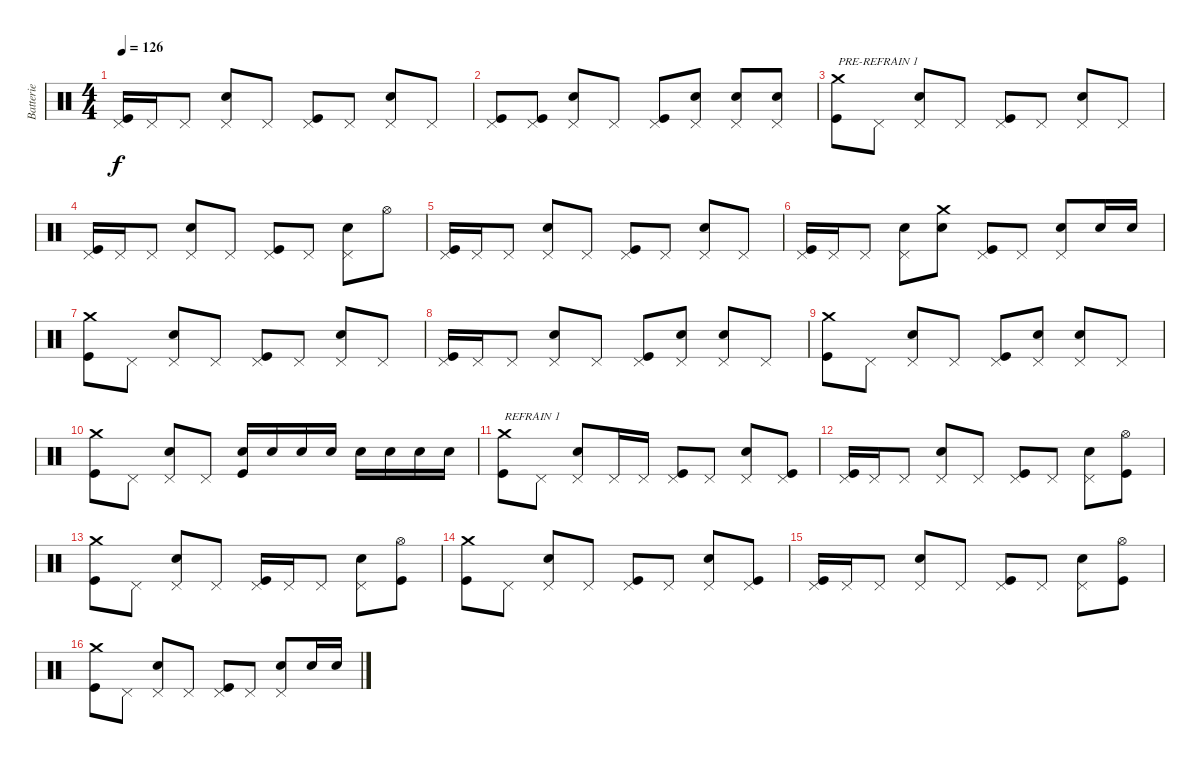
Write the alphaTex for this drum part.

\track ("Batterie" "Batterie") {instrument percussion}
\staff {score}
\articulation defaults
\ts (4 4)
\tempo 126
\clef neutral
\ks c
("Pedal Hi-Hat (hit)" "Kick (hit)").16{dy f} "Pedal Hi-Hat (hit)".16 "Pedal Hi-Hat (hit)".8 ("Pedal Hi-Hat (hit)" "Snare (hit) 2").8 "Pedal Hi-Hat (hit)".8 ("Pedal Hi-Hat (hit)" "Kick (hit)").8 "Pedal Hi-Hat (hit)".8 ("Pedal Hi-Hat (hit)" "Snare (hit) 2").8 "Pedal Hi-Hat (hit)".8 |
("Pedal Hi-Hat (hit)" "Kick (hit)").8 ("Pedal Hi-Hat (hit)" "Kick (hit)").8 ("Pedal Hi-Hat (hit)" "Snare (hit) 2").8 "Pedal Hi-Hat (hit)".8 ("Pedal Hi-Hat (hit)" "Kick (hit)").8 ("Pedal Hi-Hat (hit)" "Snare (hit) 2").8 ("Pedal Hi-Hat (hit)" "Snare (hit) 2").8 ("Pedal Hi-Hat (hit)" "Snare (hit) 2").8 |
("Crash medium (hit)" "Kick (hit)").8{txt "PRE-REFRAIN 1"} "Pedal Hi-Hat (hit)".8 ("Pedal Hi-Hat (hit)" "Snare (hit) 2").8 "Pedal Hi-Hat (hit)".8 ("Pedal Hi-Hat (hit)" "Kick (hit)").8 "Pedal Hi-Hat (hit)".8 ("Pedal Hi-Hat (hit)" "Snare (hit) 2").8 "Pedal Hi-Hat (hit)".8 |
("Pedal Hi-Hat (hit)" "Kick (hit)").16 "Pedal Hi-Hat (hit)".16 "Pedal Hi-Hat (hit)".8 ("Pedal Hi-Hat (hit)" "Snare (hit) 2").8 "Pedal Hi-Hat (hit)".8 ("Pedal Hi-Hat (hit)" "Kick (hit)").8 "Pedal Hi-Hat (hit)".8 ("Pedal Hi-Hat (hit)" "Snare (hit) 2").8 "Hi-Hat (open)".8 |
("Pedal Hi-Hat (hit)" "Kick (hit)").16 "Pedal Hi-Hat (hit)".16 "Pedal Hi-Hat (hit)".8 ("Pedal Hi-Hat (hit)" "Snare (hit) 2").8 "Pedal Hi-Hat (hit)".8 ("Pedal Hi-Hat (hit)" "Kick (hit)").8 "Pedal Hi-Hat (hit)".8 ("Pedal Hi-Hat (hit)" "Snare (hit) 2").8 "Pedal Hi-Hat (hit)".8 |
("Pedal Hi-Hat (hit)" "Kick (hit)").16 "Pedal Hi-Hat (hit)".16 "Pedal Hi-Hat (hit)".8 ("Pedal Hi-Hat (hit)" "Snare (hit) 2").8 ("Crash medium (hit)" "Snare (hit) 2").8 ("Pedal Hi-Hat (hit)" "Kick (hit)").8 "Pedal Hi-Hat (hit)".8 ("Pedal Hi-Hat (hit)" "Snare (hit) 2").8 "Snare (hit) 2".16 "Snare (hit) 2".16 |
("Crash medium (hit)" "Kick (hit)").8 "Pedal Hi-Hat (hit)".8 ("Pedal Hi-Hat (hit)" "Snare (hit) 2").8 "Pedal Hi-Hat (hit)".8 ("Pedal Hi-Hat (hit)" "Kick (hit)").8 "Pedal Hi-Hat (hit)".8 ("Pedal Hi-Hat (hit)" "Snare (hit) 2").8 "Pedal Hi-Hat (hit)".8 |
("Pedal Hi-Hat (hit)" "Kick (hit)").16 "Pedal Hi-Hat (hit)".16 "Pedal Hi-Hat (hit)".8 ("Pedal Hi-Hat (hit)" "Snare (hit) 2").8 "Pedal Hi-Hat (hit)".8 ("Pedal Hi-Hat (hit)" "Kick (hit)").8 ("Pedal Hi-Hat (hit)" "Snare (hit) 2").8 ("Pedal Hi-Hat (hit)" "Snare (hit) 2").8 "Pedal Hi-Hat (hit)".8 |
("Crash medium (hit)" "Kick (hit)").8 "Pedal Hi-Hat (hit)".8 ("Pedal Hi-Hat (hit)" "Snare (hit) 2").8 "Pedal Hi-Hat (hit)".8 ("Pedal Hi-Hat (hit)" "Kick (hit)").8 ("Pedal Hi-Hat (hit)" "Snare (hit) 2").8 ("Pedal Hi-Hat (hit)" "Snare (hit) 2").8 "Pedal Hi-Hat (hit)".8 |
("Crash medium (hit)" "Kick (hit)").8 "Pedal Hi-Hat (hit)".8 ("Pedal Hi-Hat (hit)" "Snare (hit) 2").8 "Pedal Hi-Hat (hit)".8 ("Snare (hit) 2" "Kick (hit)").16 "Snare (hit) 2".16 "Snare (hit) 2".16 "Snare (hit) 2".16 "Snare (hit) 2".16 "Snare (hit) 2".16 "Snare (hit) 2".16 "Snare (hit) 2".16 |
("Crash medium (hit)" "Kick (hit)").8{txt "REFRAIN 1"} "Pedal Hi-Hat (hit)".8 ("Pedal Hi-Hat (hit)" "Snare (hit) 2").8 "Pedal Hi-Hat (hit)".16 "Pedal Hi-Hat (hit)".16 ("Pedal Hi-Hat (hit)" "Kick (hit)").8 "Pedal Hi-Hat (hit)".8 ("Pedal Hi-Hat (hit)" "Snare (hit) 2").8 ("Pedal Hi-Hat (hit)" "Kick (hit)").8 |
("Pedal Hi-Hat (hit)" "Kick (hit)").16 "Pedal Hi-Hat (hit)".16 "Pedal Hi-Hat (hit)".8 ("Pedal Hi-Hat (hit)" "Snare (hit) 2").8 "Pedal Hi-Hat (hit)".8 ("Pedal Hi-Hat (hit)" "Kick (hit)").8 "Pedal Hi-Hat (hit)".8 ("Pedal Hi-Hat (hit)" "Snare (hit) 2").8 ("Hi-Hat (open)" "Kick (hit)").8 |
("Crash medium (hit)" "Kick (hit)").8 "Pedal Hi-Hat (hit)".8 ("Pedal Hi-Hat (hit)" "Snare (hit) 2").8 "Pedal Hi-Hat (hit)".8 ("Pedal Hi-Hat (hit)" "Kick (hit)").16 "Pedal Hi-Hat (hit)".16 "Pedal Hi-Hat (hit)".8 ("Pedal Hi-Hat (hit)" "Snare (hit) 2").8 ("Hi-Hat (open)" "Kick (hit)").8 |
("Crash medium (hit)" "Kick (hit)").8 "Pedal Hi-Hat (hit)".8 ("Pedal Hi-Hat (hit)" "Snare (hit) 2").8 "Pedal Hi-Hat (hit)".8 ("Pedal Hi-Hat (hit)" "Kick (hit)").8 "Pedal Hi-Hat (hit)".8 ("Pedal Hi-Hat (hit)" "Snare (hit) 2").8 ("Pedal Hi-Hat (hit)" "Kick (hit)").8 |
("Pedal Hi-Hat (hit)" "Kick (hit)").16 "Pedal Hi-Hat (hit)".16 "Pedal Hi-Hat (hit)".8 ("Pedal Hi-Hat (hit)" "Snare (hit) 2").8 "Pedal Hi-Hat (hit)".8 ("Pedal Hi-Hat (hit)" "Kick (hit)").8 "Pedal Hi-Hat (hit)".8 ("Pedal Hi-Hat (hit)" "Snare (hit) 2").8 ("Hi-Hat (open)" "Kick (hit)").8 |
("Crash medium (hit)" "Kick (hit)").8 "Pedal Hi-Hat (hit)".8 ("Pedal Hi-Hat (hit)" "Snare (hit) 2").8 "Pedal Hi-Hat (hit)".8 ("Pedal Hi-Hat (hit)" "Kick (hit)").8 "Pedal Hi-Hat (hit)".8 ("Pedal Hi-Hat (hit)" "Snare (hit) 2").8 "Snare (hit) 2".16 "Snare (hit) 2".16
